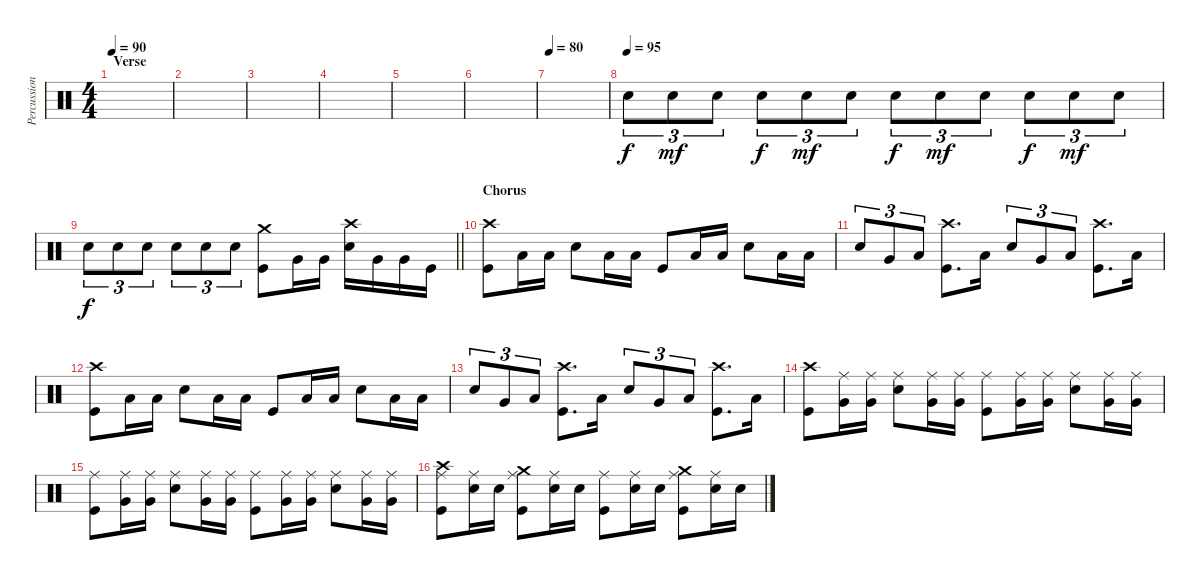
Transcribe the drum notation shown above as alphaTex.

\track ("Percussion" "Percussion") {instrument percussion}
\staff {score}
\articulation defaults
\ts (4 4)
\section ("" "Verse")
\tempo 90
\clef neutral
\ks c
|
|
|
|
|
|
\tempo 80
|
\tempo (95)
"Electric Snare (hit)".8{tu (3 2)} "Electric Snare (hit)".8{tu (3 2) dy mf} "Electric Snare (hit)".8{tu (3 2)} "Electric Snare (hit)".8{tu (3 2) dy f} "Electric Snare (hit)".8{tu (3 2) dy mf} "Electric Snare (hit)".8{tu (3 2)} "Electric Snare (hit)".8{tu (3 2) dy f} "Electric Snare (hit)".8{tu (3 2) dy mf} "Electric Snare (hit)".8{tu (3 2)} "Electric Snare (hit)".8{tu (3 2) dy f} "Electric Snare (hit)".8{tu (3 2) dy mf} "Electric Snare (hit)".8{tu (3 2)} |
\barLineRight lightlight "Electric Snare (hit)".8{tu (3 2) dy f} "Electric Snare (hit)".8{tu (3 2)} "Electric Snare (hit)".8{tu (3 2)} "Electric Snare (hit)".8{tu (3 2)} "Electric Snare (hit)".8{tu (3 2)} "Electric Snare (hit)".8{tu (3 2)}
("Kick (hit)" "Crash medium (hit)").8 "Very Low Tom (hit)".16 "Very Low Tom (hit)".16 ("Electric Snare (hit)" "Crash high (hit)").16 "Very Low Tom (hit)".16 "Very Low Tom (hit)".16 "Kick (hit)".16 |
\section ("" "Chorus")
("Kick (hit)" "Crash high (hit)").8 "Low Floor Tom (hit)".16 "Low Floor Tom (hit)".16 "Electric Snare (hit)".8 "Low Floor Tom (hit)".16 "Low Floor Tom (hit)".16 "Kick (hit)".8 "Low Floor Tom (hit)".16 "Low Floor Tom (hit)".16 "Electric Snare (hit)".8 "Low Floor Tom (hit)".16 "Low Floor Tom (hit)".16 |
"Electric Snare (hit)".8{tu (3 2)} "Very Low Tom (hit)".8{tu (3 2)} "Low Floor Tom (hit)".8{tu (3 2)} ("Kick (hit)" "Crash high (hit)").8{d} "Low Floor Tom (hit)".16 "Electric Snare (hit)".8{tu (3 2)} "Very Low Tom (hit)".8{tu (3 2)} "Low Floor Tom (hit)".8{tu (3 2)} ("Kick (hit)" "Crash high (hit)").8{d} "Low Floor Tom (hit)".16 |
("Kick (hit)" "Crash high (hit)").8 "Low Floor Tom (hit)".16 "Low Floor Tom (hit)".16 "Electric Snare (hit)".8 "Low Floor Tom (hit)".16 "Low Floor Tom (hit)".16 "Kick (hit)".8 "Low Floor Tom (hit)".16 "Low Floor Tom (hit)".16 "Electric Snare (hit)".8 "Low Floor Tom (hit)".16 "Low Floor Tom (hit)".16 |
"Electric Snare (hit)".8{tu (3 2)} "Very Low Tom (hit)".8{tu (3 2)} "Low Floor Tom (hit)".8{tu (3 2)} ("Kick (hit)" "Crash high (hit)").8{d} "Low Floor Tom (hit)".16 "Electric Snare (hit)".8{tu (3 2)} "Very Low Tom (hit)".8{tu (3 2)} "Low Floor Tom (hit)".8{tu (3 2)} ("Kick (hit)" "Crash high (hit)").8{d} "Low Floor Tom (hit)".16 |
("Kick (hit)" "Crash high (hit)").8 ("Very Low Tom (hit)" "Ride (middle)").16 ("Very Low Tom (hit)" "Ride (middle)").16 ("Electric Snare (hit)" "Ride (middle)").8 ("Very Low Tom (hit)" "Ride (middle)").16 ("Very Low Tom (hit)" "Ride (middle)").16 ("Kick (hit)" "Ride (middle)").8 ("Very Low Tom (hit)" "Ride (middle)").16 ("Very Low Tom (hit)" "Ride (middle)").16 ("Electric Snare (hit)" "Ride (middle)").8 ("Very Low Tom (hit)" "Ride (middle)").16 ("Very Low Tom (hit)" "Ride (middle)").16 |
("Kick (hit)" "Ride (middle)").8 ("Very Low Tom (hit)" "Ride (middle)").16 ("Very Low Tom (hit)" "Ride (middle)").16 ("Electric Snare (hit)" "Ride (middle)").8 ("Very Low Tom (hit)" "Ride (middle)").16 ("Very Low Tom (hit)" "Ride (middle)").16 ("Kick (hit)" "Ride (middle)").8 ("Very Low Tom (hit)" "Ride (middle)").16 ("Very Low Tom (hit)" "Ride (middle)").16 ("Electric Snare (hit)" "Ride (middle)").8 ("Very Low Tom (hit)" "Ride (middle)").16 ("Very Low Tom (hit)" "Ride (middle)").16 |
("Kick (hit)" "Ride (middle)" "Crash high (hit)").8 ("Electric Snare (hit)" "Ride (middle)").16 "Electric Snare (hit)".16 ("Kick (hit)" "Ride (middle)" "Crash medium (hit)").8 ("Electric Snare (hit)" "Ride (middle)").16 "Electric Snare (hit)".16 ("Kick (hit)" "Ride (middle)").8 ("Electric Snare (hit)" "Ride (middle)").16 "Electric Snare (hit)".16 ("Kick (hit)" "Ride (middle)" "Crash medium (hit)").8 ("Electric Snare (hit)" "Ride (middle)").16 "Electric Snare (hit)".16
